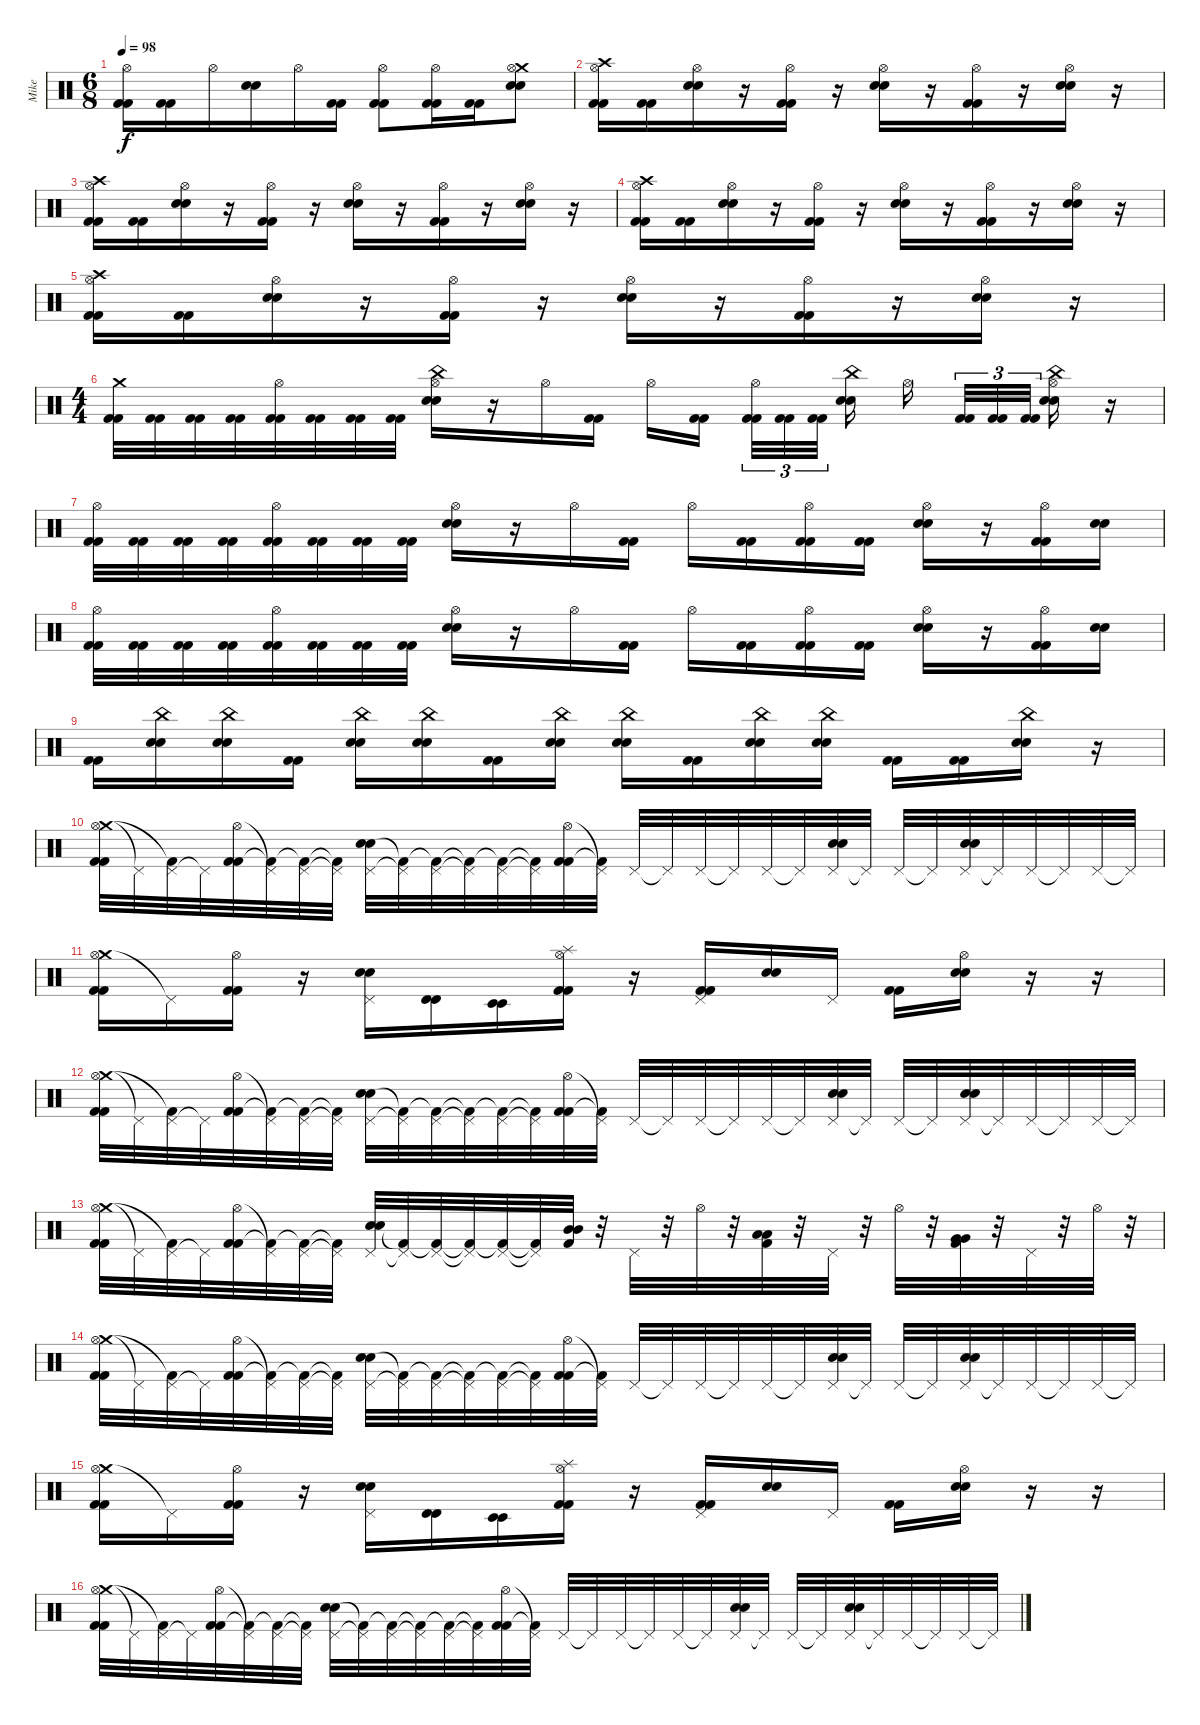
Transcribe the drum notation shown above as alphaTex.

\track ("Mike" "Mike") {instrument percussion}
\staff {score}
\articulation defaults
\ts (6 8)
\tempo 98
\clef neutral
\ks c
("Hi-Hat (open)" "Kick (hit) 2" "Kick (hit) 2").16{dy f} ("Kick (hit) 2" "Kick (hit) 2").16 "Hi-Hat (open)".16 ("Electric Snare (hit)" "Electric Snare (hit)").16 "Hi-Hat (open)".16 ("Kick (hit) 2" "Kick (hit) 2").16 ("Hi-Hat (open)" "Kick (hit) 2" "Kick (hit) 2").8 ("Hi-Hat (open)" "Kick (hit) 2" "Kick (hit) 2").16 ("Kick (hit) 2" "Kick (hit) 2").16 ("Crash medium (hit)" "Hi-Hat (open)" "Electric Snare (hit)" "Electric Snare (hit)").8 |
("Crash high (hit)" "Hi-Hat (open)" "Kick (hit) 2" "Kick (hit) 2").16 ("Kick (hit) 2" "Kick (hit) 2").16 ("Hi-Hat (open)" "Electric Snare (hit)" "Electric Snare (hit)").16 r.16 ("Hi-Hat (open)" "Kick (hit) 2" "Kick (hit) 2").16 r.16 ("Hi-Hat (open)" "Electric Snare (hit)" "Electric Snare (hit)").16 r.16 ("Hi-Hat (open)" "Kick (hit) 2" "Kick (hit) 2").16 r.16 ("Hi-Hat (open)" "Electric Snare (hit)" "Electric Snare (hit)").16 r.16 |
("Crash high (hit)" "Hi-Hat (open)" "Kick (hit) 2" "Kick (hit) 2").16 ("Kick (hit) 2" "Kick (hit) 2").16 ("Hi-Hat (open)" "Electric Snare (hit)" "Electric Snare (hit)").16 r.16 ("Hi-Hat (open)" "Kick (hit) 2" "Kick (hit) 2").16 r.16 ("Hi-Hat (open)" "Electric Snare (hit)" "Electric Snare (hit)").16 r.16 ("Hi-Hat (open)" "Kick (hit) 2" "Kick (hit) 2").16 r.16 ("Hi-Hat (open)" "Electric Snare (hit)" "Electric Snare (hit)").16 r.16 |
("Crash high (hit)" "Hi-Hat (open)" "Kick (hit) 2" "Kick (hit) 2").16 ("Kick (hit) 2" "Kick (hit) 2").16 ("Hi-Hat (open)" "Electric Snare (hit)" "Electric Snare (hit)").16 r.16 ("Hi-Hat (open)" "Kick (hit) 2" "Kick (hit) 2").16 r.16 ("Hi-Hat (open)" "Electric Snare (hit)" "Electric Snare (hit)").16 r.16 ("Hi-Hat (open)" "Kick (hit) 2" "Kick (hit) 2").16 r.16 ("Hi-Hat (open)" "Electric Snare (hit)" "Electric Snare (hit)").16 r.16 |
("Crash high (hit)" "Hi-Hat (open)" "Kick (hit) 2" "Kick (hit) 2").16 ("Kick (hit) 2" "Kick (hit) 2").16 ("Hi-Hat (open)" "Electric Snare (hit)" "Electric Snare (hit)").16 r.16 ("Hi-Hat (open)" "Kick (hit) 2" "Kick (hit) 2").16 r.16 ("Hi-Hat (open)" "Electric Snare (hit)" "Electric Snare (hit)").16 r.16 ("Hi-Hat (open)" "Kick (hit) 2" "Kick (hit) 2").16 r.16 ("Hi-Hat (open)" "Electric Snare (hit)" "Electric Snare (hit)").16 r.16 |
\ts (4 4)
("Crash medium (hit)" "Kick (hit) 2" "Kick (hit) 2").32 ("Kick (hit) 2" "Kick (hit) 2").32 ("Kick (hit) 2" "Kick (hit) 2").32 ("Kick (hit) 2" "Kick (hit) 2").32 ("Hi-Hat (open)" "Kick (hit) 2" "Kick (hit) 2").32 ("Kick (hit) 2" "Kick (hit) 2").32 ("Kick (hit) 2" "Kick (hit) 2").32 ("Kick (hit) 2" "Kick (hit) 2").32 ("China (hit)" "Hi-Hat (open)" "Electric Snare (hit)" "Electric Snare (hit)").16 r.16 "Hi-Hat (open)".16 ("Kick (hit) 2" "Kick (hit) 2").16 "Hi-Hat (open)".16 ("Kick (hit) 2" "Kick (hit) 2").16 ("Hi-Hat (open)" "Kick (hit) 2" "Kick (hit) 2").32{tu (3 2)} ("Kick (hit) 2" "Kick (hit) 2").32{tu (3 2)} ("Kick (hit) 2" "Kick (hit) 2").32{tu (3 2)} ("China (hit)" "Electric Snare (hit)" "Electric Snare (hit)").16 "Hi-Hat (open)".16 ("Kick (hit) 2" "Kick (hit) 2").32{tu (3 2)} ("Kick (hit) 2" "Kick (hit) 2").32{tu (3 2)} ("Kick (hit) 2" "Kick (hit) 2").32{tu (3 2)} ("China (hit)" "Hi-Hat (open)" "Electric Snare (hit)" "Electric Snare (hit)").16 r.16 |
("Hi-Hat (open)" "Kick (hit) 2" "Kick (hit) 2").32 ("Kick (hit) 2" "Kick (hit) 2").32 ("Kick (hit) 2" "Kick (hit) 2").32 ("Kick (hit) 2" "Kick (hit) 2").32 ("Hi-Hat (open)" "Kick (hit) 2" "Kick (hit) 2").32 ("Kick (hit) 2" "Kick (hit) 2").32 ("Kick (hit) 2" "Kick (hit) 2").32 ("Kick (hit) 2" "Kick (hit) 2").32 ("Hi-Hat (open)" "Electric Snare (hit)" "Electric Snare (hit)").16 r.16 "Hi-Hat (open)".16 ("Kick (hit) 2" "Kick (hit) 2").16 "Hi-Hat (open)".16 ("Kick (hit) 2" "Kick (hit) 2").16 ("Hi-Hat (open)" "Kick (hit) 2" "Kick (hit) 2").16 ("Kick (hit) 2" "Kick (hit) 2").16 ("Hi-Hat (open)" "Electric Snare (hit)" "Electric Snare (hit)").16 r.16 ("Hi-Hat (open)" "Kick (hit) 2" "Kick (hit) 2").16 ("Electric Snare (hit)" "Electric Snare (hit)").16 |
("Hi-Hat (open)" "Kick (hit) 2" "Kick (hit) 2").32 ("Kick (hit) 2" "Kick (hit) 2").32 ("Kick (hit) 2" "Kick (hit) 2").32 ("Kick (hit) 2" "Kick (hit) 2").32 ("Hi-Hat (open)" "Kick (hit) 2" "Kick (hit) 2").32 ("Kick (hit) 2" "Kick (hit) 2").32 ("Kick (hit) 2" "Kick (hit) 2").32 ("Kick (hit) 2" "Kick (hit) 2").32 ("Hi-Hat (open)" "Electric Snare (hit)" "Electric Snare (hit)").16 r.16 "Hi-Hat (open)".16 ("Kick (hit) 2" "Kick (hit) 2").16 "Hi-Hat (open)".16 ("Kick (hit) 2" "Kick (hit) 2").16 ("Hi-Hat (open)" "Kick (hit) 2" "Kick (hit) 2").16 ("Kick (hit) 2" "Kick (hit) 2").16 ("Hi-Hat (open)" "Electric Snare (hit)" "Electric Snare (hit)").16 r.16 ("Hi-Hat (open)" "Kick (hit) 2" "Kick (hit) 2").16 ("Electric Snare (hit)" "Electric Snare (hit)").16 |
("Kick (hit) 2" "Kick (hit) 2").16 ("China (hit)" "Electric Snare (hit)" "Electric Snare (hit)").16 ("China (hit)" "Electric Snare (hit)" "Electric Snare (hit)").16 ("Kick (hit) 2" "Kick (hit) 2").16 ("China (hit)" "Electric Snare (hit)" "Electric Snare (hit)").16 ("China (hit)" "Electric Snare (hit)" "Electric Snare (hit)").16 ("Kick (hit) 2" "Kick (hit) 2").16 ("China (hit)" "Electric Snare (hit)" "Electric Snare (hit)").16 ("China (hit)" "Electric Snare (hit)" "Electric Snare (hit)").16 ("Kick (hit) 2" "Kick (hit) 2").16 ("China (hit)" "Electric Snare (hit)" "Electric Snare (hit)").16 ("China (hit)" "Electric Snare (hit)" "Electric Snare (hit)").16 ("Kick (hit) 2" "Kick (hit) 2").16 ("Kick (hit) 2" "Kick (hit) 2").16 ("China (hit)" "Electric Snare (hit)" "Electric Snare (hit)").16 r.16 |
("Crash medium (hit)" "Hi-Hat (open)" "Kick (hit) 2" "Kick (hit) 2").32 "Pedal Hi-Hat (hit)"{t}.32 ("Pedal Hi-Hat (hit)" "Kick (hit) 2"{t}).32 "Pedal Hi-Hat (hit)"{t}.32 ("Hi-Hat (open)" "Kick (hit) 2" "Kick (hit) 2").32 ("Pedal Hi-Hat (hit)"{t} "Kick (hit) 2"{t}).32 ("Pedal Hi-Hat (hit)" "Kick (hit) 2"{t}).32 ("Pedal Hi-Hat (hit)"{t} "Kick (hit) 2"{t}).32 ("Pedal Hi-Hat (hit)" "Electric Snare (hit)" "Electric Snare (hit)").32 ("Pedal Hi-Hat (hit)"{t} "Kick (hit) 2"{t}).32 ("Pedal Hi-Hat (hit)" "Kick (hit) 2"{t}).32 ("Pedal Hi-Hat (hit)"{t} "Kick (hit) 2"{t}).32 ("Pedal Hi-Hat (hit)" "Kick (hit) 2"{t}).32 ("Pedal Hi-Hat (hit)"{t} "Kick (hit) 2"{t}).32 ("Hi-Hat (open)" "Kick (hit) 2" "Kick (hit) 2").32 ("Pedal Hi-Hat (hit)"{t} "Kick (hit) 2"{t}).32 "Pedal Hi-Hat (hit)".32 "Pedal Hi-Hat (hit)"{t}.32 "Pedal Hi-Hat (hit)".32 "Pedal Hi-Hat (hit)"{t}.32 "Pedal Hi-Hat (hit)".32 "Pedal Hi-Hat (hit)"{t}.32 ("Pedal Hi-Hat (hit)" "Electric Snare (hit)" "Electric Snare (hit)").32 "Pedal Hi-Hat (hit)"{t}.32 "Pedal Hi-Hat (hit)".32 "Pedal Hi-Hat (hit)"{t}.32 ("Pedal Hi-Hat (hit)" "Electric Snare (hit)" "Electric Snare (hit)").32 "Pedal Hi-Hat (hit)"{t}.32 "Pedal Hi-Hat (hit)".32 "Pedal Hi-Hat (hit)"{t}.32 "Pedal Hi-Hat (hit)".32 "Pedal Hi-Hat (hit)"{t}.32 |
("Crash medium (hit)" "Hi-Hat (open)" "Kick (hit) 2" "Kick (hit) 2").16 "Pedal Hi-Hat (hit)"{t}.16 ("Hi-Hat (open)" "Kick (hit) 2" "Kick (hit) 2").16 r.16 ("Pedal Hi-Hat (hit)" "Electric Snare (hit)" "Electric Snare (hit)").16 ("Timbale high (hit)" "Timbale high (hit)").16 ("Timbale low (hit)" "Timbale low (hit)").16 ("Splash (hit)" "Hi-Hat (open)" "Kick (hit) 2" "Kick (hit) 2").16 r.16 ("Pedal Hi-Hat (hit)" "Kick (hit) 2" "Kick (hit) 2").16 ("Electric Snare (hit)" "Electric Snare (hit)").16 "Pedal Hi-Hat (hit)".16 ("Kick (hit) 2" "Kick (hit) 2").16 ("Hi-Hat (open)" "Electric Snare (hit)" "Electric Snare (hit)").16 r.16 r.16 |
("Crash medium (hit)" "Hi-Hat (open)" "Kick (hit) 2" "Kick (hit) 2").32 "Pedal Hi-Hat (hit)"{t}.32 ("Pedal Hi-Hat (hit)" "Kick (hit) 2"{t}).32 "Pedal Hi-Hat (hit)"{t}.32 ("Hi-Hat (open)" "Kick (hit) 2" "Kick (hit) 2").32 ("Pedal Hi-Hat (hit)"{t} "Kick (hit) 2"{t}).32 ("Pedal Hi-Hat (hit)" "Kick (hit) 2"{t}).32 ("Pedal Hi-Hat (hit)"{t} "Kick (hit) 2"{t}).32 ("Pedal Hi-Hat (hit)" "Electric Snare (hit)" "Electric Snare (hit)").32 ("Pedal Hi-Hat (hit)"{t} "Kick (hit) 2"{t}).32 ("Pedal Hi-Hat (hit)" "Kick (hit) 2"{t}).32 ("Pedal Hi-Hat (hit)"{t} "Kick (hit) 2"{t}).32 ("Pedal Hi-Hat (hit)" "Kick (hit) 2"{t}).32 ("Pedal Hi-Hat (hit)"{t} "Kick (hit) 2"{t}).32 ("Hi-Hat (open)" "Kick (hit) 2" "Kick (hit) 2").32 ("Pedal Hi-Hat (hit)"{t} "Kick (hit) 2"{t}).32 "Pedal Hi-Hat (hit)".32 "Pedal Hi-Hat (hit)"{t}.32 "Pedal Hi-Hat (hit)".32 "Pedal Hi-Hat (hit)"{t}.32 "Pedal Hi-Hat (hit)".32 "Pedal Hi-Hat (hit)"{t}.32 ("Pedal Hi-Hat (hit)" "Electric Snare (hit)" "Electric Snare (hit)").32 "Pedal Hi-Hat (hit)"{t}.32 "Pedal Hi-Hat (hit)".32 "Pedal Hi-Hat (hit)"{t}.32 ("Pedal Hi-Hat (hit)" "Electric Snare (hit)" "Electric Snare (hit)").32 "Pedal Hi-Hat (hit)"{t}.32 "Pedal Hi-Hat (hit)".32 "Pedal Hi-Hat (hit)"{t}.32 "Pedal Hi-Hat (hit)".32 "Pedal Hi-Hat (hit)"{t}.32 |
("Crash medium (hit)" "Hi-Hat (open)" "Kick (hit) 2" "Kick (hit) 2").32 "Pedal Hi-Hat (hit)"{t}.32 ("Pedal Hi-Hat (hit)" "Kick (hit) 2"{t}).32 "Pedal Hi-Hat (hit)"{t}.32 ("Hi-Hat (open)" "Kick (hit) 2" "Kick (hit) 2").32 ("Pedal Hi-Hat (hit)"{t} "Kick (hit) 2"{t}).32 ("Pedal Hi-Hat (hit)" "Kick (hit) 2"{t}).32 ("Pedal Hi-Hat (hit)"{t} "Kick (hit) 2"{t}).32 ("Pedal Hi-Hat (hit)" "Electric Snare (hit)" "Electric Snare (hit)").32 ("Pedal Hi-Hat (hit)"{t} "Kick (hit) 2"{t}).32 ("Pedal Hi-Hat (hit)" "Kick (hit) 2"{t}).32 ("Pedal Hi-Hat (hit)"{t} "Kick (hit) 2"{t}).32 ("Pedal Hi-Hat (hit)" "Kick (hit) 2"{t}).32 ("Pedal Hi-Hat (hit)"{t} "Kick (hit) 2"{t}).32 ("Mid Tom (hit)" "Mid Tom (hit)" "Kick (hit) 2").32 r.32 "Pedal Hi-Hat (hit)".32 r.32 "Hi-Hat (open)".32 r.32 ("Low Tom (hit)" "Low Tom (hit)" "Kick (hit) 2").32 r.32 "Pedal Hi-Hat (hit)".32 r.32 "Hi-Hat (open)".32 r.32 ("Very Low Tom (hit)" "Very Low Tom (hit)" "Kick (hit) 2").32 r.32 "Pedal Hi-Hat (hit)".32 r.32 "Hi-Hat (open)".32 r.32 |
("Crash medium (hit)" "Hi-Hat (open)" "Kick (hit) 2" "Kick (hit) 2").32 "Pedal Hi-Hat (hit)"{t}.32 ("Pedal Hi-Hat (hit)" "Kick (hit) 2"{t}).32 "Pedal Hi-Hat (hit)"{t}.32 ("Hi-Hat (open)" "Kick (hit) 2" "Kick (hit) 2").32 ("Pedal Hi-Hat (hit)"{t} "Kick (hit) 2"{t}).32 ("Pedal Hi-Hat (hit)" "Kick (hit) 2"{t}).32 ("Pedal Hi-Hat (hit)"{t} "Kick (hit) 2"{t}).32 ("Pedal Hi-Hat (hit)" "Electric Snare (hit)" "Electric Snare (hit)").32 ("Pedal Hi-Hat (hit)"{t} "Kick (hit) 2"{t}).32 ("Pedal Hi-Hat (hit)" "Kick (hit) 2"{t}).32 ("Pedal Hi-Hat (hit)"{t} "Kick (hit) 2"{t}).32 ("Pedal Hi-Hat (hit)" "Kick (hit) 2"{t}).32 ("Pedal Hi-Hat (hit)"{t} "Kick (hit) 2"{t}).32 ("Hi-Hat (open)" "Kick (hit) 2" "Kick (hit) 2").32 ("Pedal Hi-Hat (hit)"{t} "Kick (hit) 2"{t}).32 "Pedal Hi-Hat (hit)".32 "Pedal Hi-Hat (hit)"{t}.32 "Pedal Hi-Hat (hit)".32 "Pedal Hi-Hat (hit)"{t}.32 "Pedal Hi-Hat (hit)".32 "Pedal Hi-Hat (hit)"{t}.32 ("Pedal Hi-Hat (hit)" "Electric Snare (hit)" "Electric Snare (hit)").32 "Pedal Hi-Hat (hit)"{t}.32 "Pedal Hi-Hat (hit)".32 "Pedal Hi-Hat (hit)"{t}.32 ("Pedal Hi-Hat (hit)" "Electric Snare (hit)" "Electric Snare (hit)").32 "Pedal Hi-Hat (hit)"{t}.32 "Pedal Hi-Hat (hit)".32 "Pedal Hi-Hat (hit)"{t}.32 "Pedal Hi-Hat (hit)".32 "Pedal Hi-Hat (hit)"{t}.32 |
("Crash medium (hit)" "Hi-Hat (open)" "Kick (hit) 2" "Kick (hit) 2").16 "Pedal Hi-Hat (hit)"{t}.16 ("Hi-Hat (open)" "Kick (hit) 2" "Kick (hit) 2").16 r.16 ("Pedal Hi-Hat (hit)" "Electric Snare (hit)" "Electric Snare (hit)").16 ("Timbale high (hit)" "Timbale high (hit)").16 ("Timbale low (hit)" "Timbale low (hit)").16 ("Splash (hit)" "Hi-Hat (open)" "Kick (hit) 2" "Kick (hit) 2").16 r.16 ("Pedal Hi-Hat (hit)" "Kick (hit) 2" "Kick (hit) 2").16 ("Electric Snare (hit)" "Electric Snare (hit)").16 "Pedal Hi-Hat (hit)".16 ("Kick (hit) 2" "Kick (hit) 2").16 ("Hi-Hat (open)" "Electric Snare (hit)" "Electric Snare (hit)").16 r.16 r.16 |
("Crash medium (hit)" "Hi-Hat (open)" "Kick (hit) 2" "Kick (hit) 2").32 "Pedal Hi-Hat (hit)"{t}.32 ("Pedal Hi-Hat (hit)" "Kick (hit) 2"{t}).32 "Pedal Hi-Hat (hit)"{t}.32 ("Hi-Hat (open)" "Kick (hit) 2" "Kick (hit) 2").32 ("Pedal Hi-Hat (hit)"{t} "Kick (hit) 2"{t}).32 ("Pedal Hi-Hat (hit)" "Kick (hit) 2"{t}).32 ("Pedal Hi-Hat (hit)"{t} "Kick (hit) 2"{t}).32 ("Pedal Hi-Hat (hit)" "Electric Snare (hit)" "Electric Snare (hit)").32 ("Pedal Hi-Hat (hit)"{t} "Kick (hit) 2"{t}).32 ("Pedal Hi-Hat (hit)" "Kick (hit) 2"{t}).32 ("Pedal Hi-Hat (hit)"{t} "Kick (hit) 2"{t}).32 ("Pedal Hi-Hat (hit)" "Kick (hit) 2"{t}).32 ("Pedal Hi-Hat (hit)"{t} "Kick (hit) 2"{t}).32 ("Hi-Hat (open)" "Kick (hit) 2" "Kick (hit) 2").32 ("Pedal Hi-Hat (hit)"{t} "Kick (hit) 2"{t}).32 "Pedal Hi-Hat (hit)".32 "Pedal Hi-Hat (hit)"{t}.32 "Pedal Hi-Hat (hit)".32 "Pedal Hi-Hat (hit)"{t}.32 "Pedal Hi-Hat (hit)".32 "Pedal Hi-Hat (hit)"{t}.32 ("Pedal Hi-Hat (hit)" "Electric Snare (hit)" "Electric Snare (hit)").32 "Pedal Hi-Hat (hit)"{t}.32 "Pedal Hi-Hat (hit)".32 "Pedal Hi-Hat (hit)"{t}.32 ("Pedal Hi-Hat (hit)" "Electric Snare (hit)" "Electric Snare (hit)").32 "Pedal Hi-Hat (hit)"{t}.32 "Pedal Hi-Hat (hit)".32 "Pedal Hi-Hat (hit)"{t}.32 "Pedal Hi-Hat (hit)".32 "Pedal Hi-Hat (hit)"{t}.32
